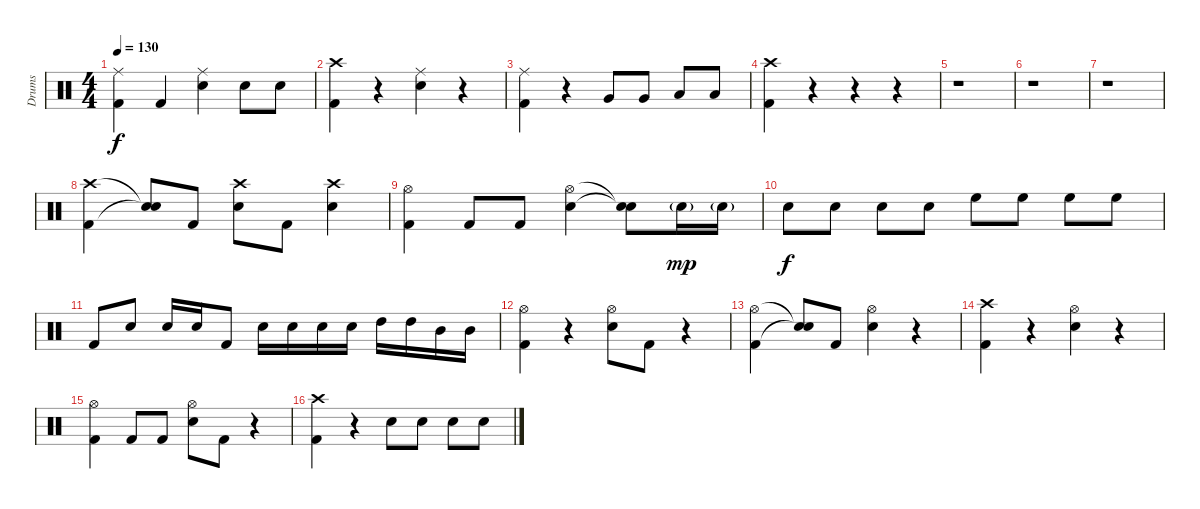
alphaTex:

\track ("Drums" "Drums") {instrument percussion}
\staff {score}
\articulation defaults
\ts (4 4)
\tempo 130
\clef neutral
\ks c
("Ride (middle)" "Kick (hit) 2").4{dy f} "Kick (hit) 2".4 ("Ride (middle)" "Electric Snare (hit)").4 "Electric Snare (hit)".8 "Electric Snare (hit)".8 |
("Crash high (hit)" "Kick (hit) 2").4 r.4 ("Ride (middle)" "Electric Snare (hit)").4 r.4 |
("Ride (middle)" "Kick (hit) 2").4 r.4 "Very Low Tom (hit)".8 "Very Low Tom (hit)".8 "Low Floor Tom (hit)".8 "Low Floor Tom (hit)".8 |
("Crash high (hit)" "Kick (hit) 2").4 r.4 r.4 r.4 |
r.1 |
r.1 |
r.1 |
("Crash high (hit)" "Kick (hit) 2").4 ("Snare (hit)"{t} "Snare (hit)"{t}).8 "Kick (hit) 2".8 ("Crash high (hit)" "Electric Snare (hit)").8 "Kick (hit) 2".8 ("Crash high (hit)" "Electric Snare (hit)").4 |
("Hi-Hat (open)" "Kick (hit) 2").4 "Kick (hit) 2".8 "Kick (hit) 2".8 ("Hi-Hat (open)" "Electric Snare (hit)").4 ("Snare (hit)"{t} "Snare (hit)"{t}).8 "Electric Snare (hit)"{g}.16{dy mp} "Electric Snare (hit)"{g}.16 |
"Electric Snare (hit)".8{dy f} "Electric Snare (hit)".8 "Electric Snare (hit)".8 "Electric Snare (hit)".8 "High Floor Tom (hit)".8 "High Floor Tom (hit)".8 "High Floor Tom (hit)".8 "High Floor Tom (hit)".8 |
"Kick (hit) 2".8 "Electric Snare (hit)".8 "Electric Snare (hit)".16 "Electric Snare (hit)".16 "Kick (hit) 2".8 "Electric Snare (hit)".16 "Electric Snare (hit)".16 "Electric Snare (hit)".16 "Electric Snare (hit)".16 "High Tom (hit)".16 "High Tom (hit)".16 "Mid Tom (hit)".16 "Mid Tom (hit)".16 |
("Hi-Hat (open)" "Kick (hit) 2").4 r.4 ("Hi-Hat (open)" "Electric Snare (hit)").8 "Kick (hit) 2".8 r.4 |
("Hi-Hat (open)" "Kick (hit) 2").4 ("Snare (hit)"{t} "Snare (hit)"{t}).8 "Kick (hit) 2".8 ("Hi-Hat (open)" "Electric Snare (hit)").4 r.4 |
("Crash high (hit)" "Kick (hit) 2").4 r.4 ("Hi-Hat (open)" "Electric Snare (hit)").4 r.4 |
("Hi-Hat (open)" "Kick (hit) 2").4 "Kick (hit) 2".8 "Kick (hit) 2".8 ("Hi-Hat (open)" "Electric Snare (hit)").8 "Kick (hit) 2".8 r.4 |
("Crash high (hit)" "Kick (hit) 2").4 r.4 "Electric Snare (hit)".8 "Electric Snare (hit)".8 "Electric Snare (hit)".8 "Electric Snare (hit)".8
